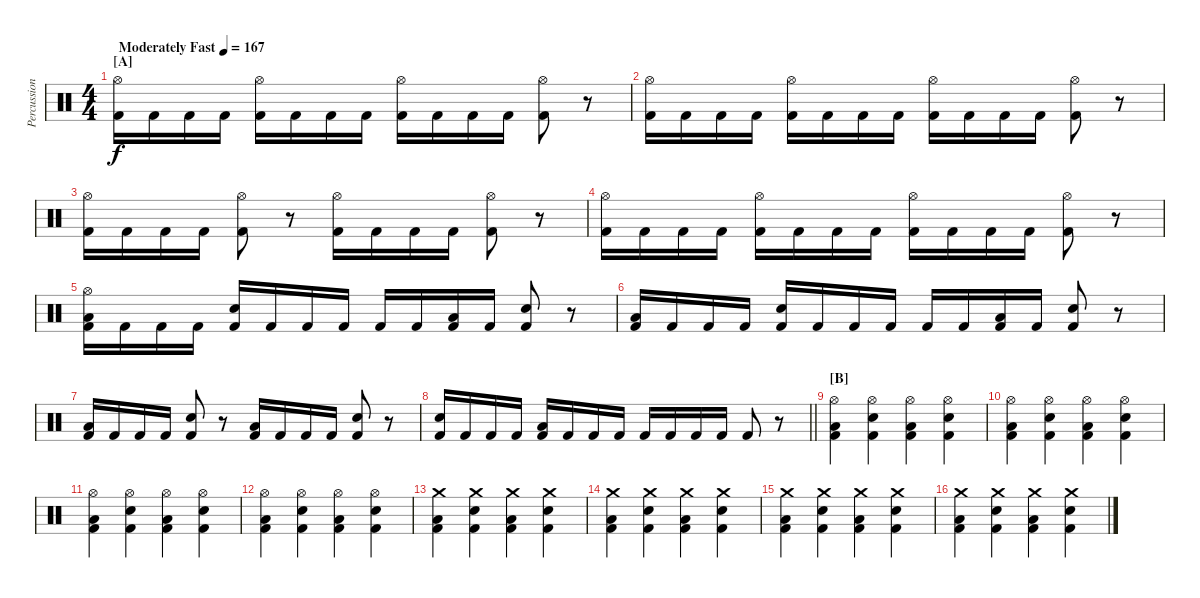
\track ("Percussions" "Percussion") {instrument percussion}
\staff {score}
\articulation defaults
\ts (4 4)
\section ("" "[A]")
\tempo (167 "Moderately Fast")
\clef neutral
\ks c
("Hi-Hat (open)" "Kick (hit) 2").16{dy f} "Kick (hit) 2".16 "Kick (hit) 2".16 "Kick (hit) 2".16 ("Hi-Hat (open)" "Kick (hit) 2").16 "Kick (hit) 2".16 "Kick (hit) 2".16 "Kick (hit) 2".16 ("Hi-Hat (open)" "Kick (hit) 2").16 "Kick (hit) 2".16 "Kick (hit) 2".16 "Kick (hit) 2".16 ("Hi-Hat (open)" "Kick (hit) 2").8 r.8 |
("Hi-Hat (open)" "Kick (hit) 2").16 "Kick (hit) 2".16 "Kick (hit) 2".16 "Kick (hit) 2".16 ("Hi-Hat (open)" "Kick (hit) 2").16 "Kick (hit) 2".16 "Kick (hit) 2".16 "Kick (hit) 2".16 ("Hi-Hat (open)" "Kick (hit) 2").16 "Kick (hit) 2".16 "Kick (hit) 2".16 "Kick (hit) 2".16 ("Hi-Hat (open)" "Kick (hit) 2").8 r.8 |
("Hi-Hat (open)" "Kick (hit) 2").16 "Kick (hit) 2".16 "Kick (hit) 2".16 "Kick (hit) 2".16 ("Hi-Hat (open)" "Kick (hit) 2").8 r.8 ("Hi-Hat (open)" "Kick (hit) 2").16 "Kick (hit) 2".16 "Kick (hit) 2".16 "Kick (hit) 2".16 ("Hi-Hat (open)" "Kick (hit) 2").8 r.8 |
("Hi-Hat (open)" "Kick (hit) 2").16 "Kick (hit) 2".16 "Kick (hit) 2".16 "Kick (hit) 2".16 ("Hi-Hat (open)" "Kick (hit) 2").16 "Kick (hit) 2".16 "Kick (hit) 2".16 "Kick (hit) 2".16 ("Hi-Hat (open)" "Kick (hit) 2").16 "Kick (hit) 2".16 "Kick (hit) 2".16 "Kick (hit) 2".16 ("Hi-Hat (open)" "Kick (hit) 2").8 r.8 |
("Hi-Hat (open)" "Low Floor Tom (hit)" "Kick (hit) 2").16 "Kick (hit) 2".16 "Kick (hit) 2".16 "Kick (hit) 2".16 ("Electric Snare (hit)" "Kick (hit) 2").16 "Kick (hit) 2".16 "Kick (hit) 2".16 "Kick (hit) 2".16 "Kick (hit) 2".16 "Kick (hit) 2".16 ("Low Floor Tom (hit)" "Kick (hit) 2").16 "Kick (hit) 2".16 ("Electric Snare (hit)" "Kick (hit) 2").8 r.8 |
("Low Floor Tom (hit)" "Kick (hit) 2").16 "Kick (hit) 2".16 "Kick (hit) 2".16 "Kick (hit) 2".16 ("Electric Snare (hit)" "Kick (hit) 2").16 "Kick (hit) 2".16 "Kick (hit) 2".16 "Kick (hit) 2".16 "Kick (hit) 2".16 "Kick (hit) 2".16 ("Low Floor Tom (hit)" "Kick (hit) 2").16 "Kick (hit) 2".16 ("Electric Snare (hit)" "Kick (hit) 2").8 r.8 |
("Low Floor Tom (hit)" "Kick (hit) 2").16 "Kick (hit) 2".16 "Kick (hit) 2".16 "Kick (hit) 2".16 ("Electric Snare (hit)" "Kick (hit) 2").8 r.8 ("Low Floor Tom (hit)" "Kick (hit) 2").16 "Kick (hit) 2".16 "Kick (hit) 2".16 "Kick (hit) 2".16 ("Electric Snare (hit)" "Kick (hit) 2").8 r.8 |
\barLineRight lightlight
("Electric Snare (hit)" "Kick (hit) 2").16 "Kick (hit) 2".16 "Kick (hit) 2".16 "Kick (hit) 2".16 ("Low Floor Tom (hit)" "Kick (hit) 2").16 "Kick (hit) 2".16 "Kick (hit) 2".16 "Kick (hit) 2".16 "Kick (hit) 2".16 "Kick (hit) 2".16 "Kick (hit) 2".16 "Kick (hit) 2".16 "Kick (hit) 2".8 r.8 |
\section ("" "[B]")
("Hi-Hat (open)" "Low Floor Tom (hit)" "Kick (hit) 2").4 ("Hi-Hat (open)" "Electric Snare (hit)" "Kick (hit) 2").4 ("Hi-Hat (open)" "Low Floor Tom (hit)" "Kick (hit) 2").4 ("Hi-Hat (open)" "Electric Snare (hit)" "Kick (hit) 2").4 |
("Hi-Hat (open)" "Low Floor Tom (hit)" "Kick (hit) 2").4 ("Hi-Hat (open)" "Electric Snare (hit)" "Kick (hit) 2").4 ("Hi-Hat (open)" "Low Floor Tom (hit)" "Kick (hit) 2").4 ("Hi-Hat (open)" "Electric Snare (hit)" "Kick (hit) 2").4 |
("Hi-Hat (open)" "Low Floor Tom (hit)" "Kick (hit) 2").4 ("Hi-Hat (open)" "Electric Snare (hit)" "Kick (hit) 2").4 ("Hi-Hat (open)" "Low Floor Tom (hit)" "Kick (hit) 2").4 ("Hi-Hat (open)" "Electric Snare (hit)" "Kick (hit) 2").4 |
("Hi-Hat (open)" "Low Floor Tom (hit)" "Kick (hit) 2").4 ("Hi-Hat (open)" "Electric Snare (hit)" "Kick (hit) 2").4 ("Hi-Hat (open)" "Low Floor Tom (hit)" "Kick (hit) 2").4 ("Hi-Hat (open)" "Electric Snare (hit)" "Kick (hit) 2").4 |
("Crash medium (hit)" "Low Floor Tom (hit)" "Kick (hit) 2").4 ("Crash medium (hit)" "Electric Snare (hit)" "Kick (hit) 2").4 ("Crash medium (hit)" "Low Floor Tom (hit)" "Kick (hit) 2").4 ("Crash medium (hit)" "Electric Snare (hit)" "Kick (hit) 2").4 |
("Crash medium (hit)" "Low Floor Tom (hit)" "Kick (hit) 2").4 ("Crash medium (hit)" "Electric Snare (hit)" "Kick (hit) 2").4 ("Crash medium (hit)" "Low Floor Tom (hit)" "Kick (hit) 2").4 ("Crash medium (hit)" "Electric Snare (hit)" "Kick (hit) 2").4 |
("Crash medium (hit)" "Low Floor Tom (hit)" "Kick (hit) 2").4 ("Crash medium (hit)" "Electric Snare (hit)" "Kick (hit) 2").4 ("Crash medium (hit)" "Low Floor Tom (hit)" "Kick (hit) 2").4 ("Crash medium (hit)" "Electric Snare (hit)" "Kick (hit) 2").4 |
("Crash medium (hit)" "Low Floor Tom (hit)" "Kick (hit) 2").4 ("Crash medium (hit)" "Electric Snare (hit)" "Kick (hit) 2").4 ("Crash medium (hit)" "Low Floor Tom (hit)" "Kick (hit) 2").4 ("Crash medium (hit)" "Electric Snare (hit)" "Kick (hit) 2").4
